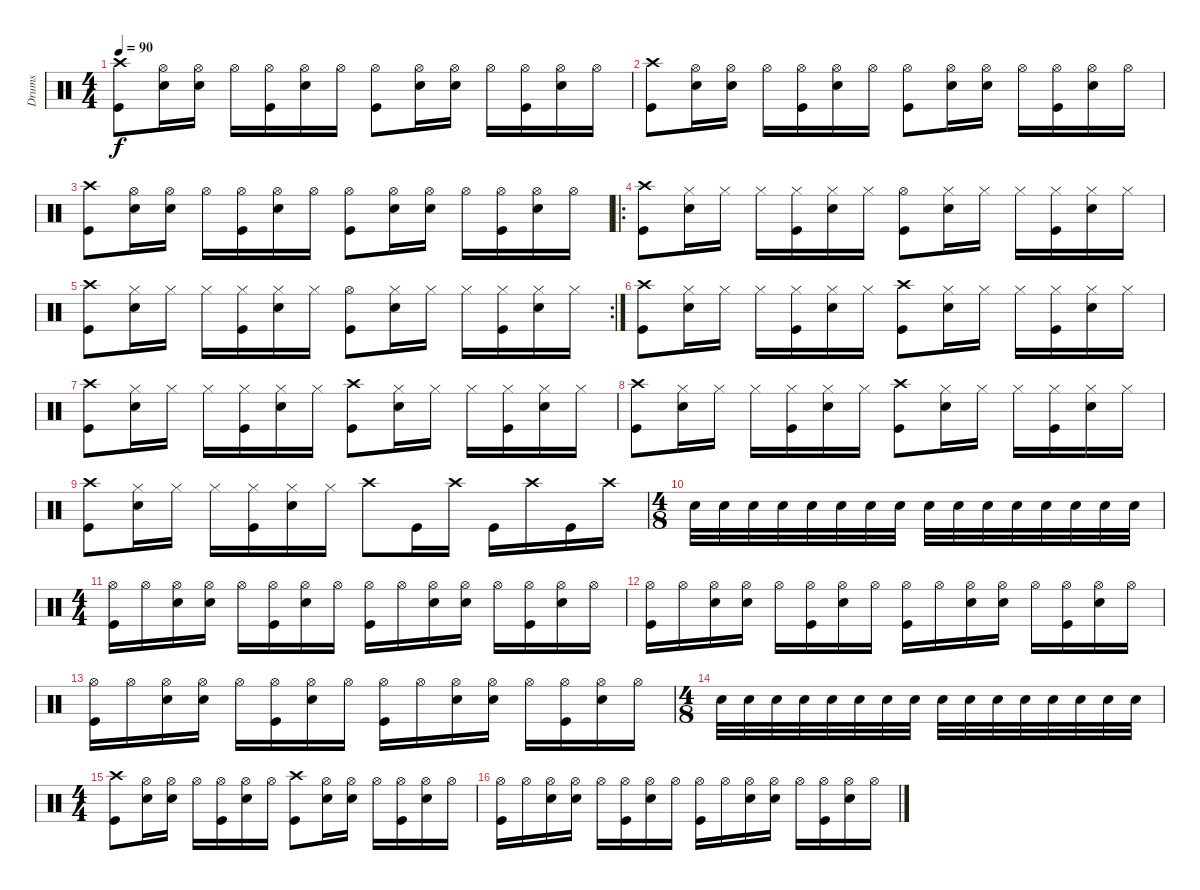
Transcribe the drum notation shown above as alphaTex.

\track ("Drums" "Drums") {instrument percussion}
\staff {score}
\articulation defaults
\ts (4 4)
\tempo 90
\clef neutral
\ks c
("Crash high (hit)" "Kick (hit)").8{dy f} ("Hi-Hat (open)" "Snare (hit) 2").16 ("Hi-Hat (open)" "Snare (hit) 2").16 "Hi-Hat (open)".16 ("Hi-Hat (open)" "Kick (hit)").16 ("Hi-Hat (open)" "Snare (hit) 2").16 "Hi-Hat (open)".16 ("Hi-Hat (open)" "Kick (hit)").8 ("Hi-Hat (open)" "Snare (hit) 2").16 ("Hi-Hat (open)" "Snare (hit) 2").16 "Hi-Hat (open)".16 ("Hi-Hat (open)" "Kick (hit)").16 ("Hi-Hat (open)" "Snare (hit) 2").16 "Hi-Hat (open)".16 |
("Crash high (hit)" "Kick (hit)").8 ("Hi-Hat (open)" "Snare (hit) 2").16 ("Hi-Hat (open)" "Snare (hit) 2").16 "Hi-Hat (open)".16 ("Hi-Hat (open)" "Kick (hit)").16 ("Hi-Hat (open)" "Snare (hit) 2").16 "Hi-Hat (open)".16 ("Hi-Hat (open)" "Kick (hit)").8 ("Hi-Hat (open)" "Snare (hit) 2").16 ("Hi-Hat (open)" "Snare (hit) 2").16 "Hi-Hat (open)".16 ("Hi-Hat (open)" "Kick (hit)").16 ("Hi-Hat (open)" "Snare (hit) 2").16 "Hi-Hat (open)".16 |
("Crash high (hit)" "Kick (hit)").8 ("Hi-Hat (open)" "Snare (hit) 2").16 ("Hi-Hat (open)" "Snare (hit) 2").16 "Hi-Hat (open)".16 ("Hi-Hat (open)" "Kick (hit)").16 ("Hi-Hat (open)" "Snare (hit) 2").16 "Hi-Hat (open)".16 ("Hi-Hat (open)" "Kick (hit)").8 ("Hi-Hat (open)" "Snare (hit) 2").16 ("Hi-Hat (open)" "Snare (hit) 2").16 "Hi-Hat (open)".16 ("Hi-Hat (open)" "Kick (hit)").16 ("Hi-Hat (open)" "Snare (hit) 2").16 "Hi-Hat (open)".16 |
\ro
("Crash high (hit)" "Kick (hit)").8 ("Hi-Hat (closed)" "Snare (hit) 2").16 "Hi-Hat (closed)".16 "Hi-Hat (closed)".16 ("Hi-Hat (closed)" "Kick (hit)").16 ("Hi-Hat (closed)" "Snare (hit) 2").16 "Hi-Hat (closed)".16 ("Hi-Hat (open)" "Kick (hit)").8 ("Hi-Hat (closed)" "Snare (hit) 2").16 "Hi-Hat (closed)".16 "Hi-Hat (closed)".16 ("Hi-Hat (closed)" "Kick (hit)").16 ("Hi-Hat (closed)" "Snare (hit) 2").16 "Hi-Hat (closed)".16 |
\rc 2
("Crash high (hit)" "Kick (hit)").8 ("Hi-Hat (closed)" "Snare (hit) 2").16 "Hi-Hat (closed)".16 "Hi-Hat (closed)".16 ("Hi-Hat (closed)" "Kick (hit)").16 ("Hi-Hat (closed)" "Snare (hit) 2").16 "Hi-Hat (closed)".16 ("Hi-Hat (open)" "Kick (hit)").8 ("Hi-Hat (closed)" "Snare (hit) 2").16 "Hi-Hat (closed)".16 "Hi-Hat (closed)".16 ("Hi-Hat (closed)" "Kick (hit)").16 ("Hi-Hat (closed)" "Snare (hit) 2").16 "Hi-Hat (closed)".16 |
("Crash high (hit)" "Kick (hit)").8 ("Hi-Hat (closed)" "Snare (hit) 2").16 "Hi-Hat (closed)".16 "Hi-Hat (closed)".16 ("Hi-Hat (closed)" "Kick (hit)").16 ("Hi-Hat (closed)" "Snare (hit) 2").16 "Hi-Hat (closed)".16 ("Crash high (hit)" "Kick (hit)").8 ("Hi-Hat (closed)" "Snare (hit) 2").16 "Hi-Hat (closed)".16 "Hi-Hat (closed)".16 ("Hi-Hat (closed)" "Kick (hit)").16 ("Hi-Hat (closed)" "Snare (hit) 2").16 "Hi-Hat (closed)".16 |
("Crash high (hit)" "Kick (hit)").8 ("Hi-Hat (closed)" "Snare (hit) 2").16 "Hi-Hat (closed)".16 "Hi-Hat (closed)".16 ("Hi-Hat (closed)" "Kick (hit)").16 ("Hi-Hat (closed)" "Snare (hit) 2").16 "Hi-Hat (closed)".16 ("Crash high (hit)" "Kick (hit)").8 ("Hi-Hat (closed)" "Snare (hit) 2").16 "Hi-Hat (closed)".16 "Hi-Hat (closed)".16 ("Hi-Hat (closed)" "Kick (hit)").16 ("Hi-Hat (closed)" "Snare (hit) 2").16 "Hi-Hat (closed)".16 |
("Crash high (hit)" "Kick (hit)").8 ("Hi-Hat (closed)" "Snare (hit) 2").16 "Hi-Hat (closed)".16 "Hi-Hat (closed)".16 ("Hi-Hat (closed)" "Kick (hit)").16 ("Hi-Hat (closed)" "Snare (hit) 2").16 "Hi-Hat (closed)".16 ("Crash high (hit)" "Kick (hit)").8 ("Hi-Hat (closed)" "Snare (hit) 2").16 "Hi-Hat (closed)".16 "Hi-Hat (closed)".16 ("Hi-Hat (closed)" "Kick (hit)").16 ("Hi-Hat (closed)" "Snare (hit) 2").16 "Hi-Hat (closed)".16 |
("Crash high (hit)" "Kick (hit)").8 ("Hi-Hat (closed)" "Snare (hit) 2").16 "Hi-Hat (closed)".16 "Hi-Hat (closed)".16 ("Hi-Hat (closed)" "Kick (hit)").16 ("Hi-Hat (closed)" "Snare (hit) 2").16 "Hi-Hat (closed)".16 "Crash high (hit)".8 "Kick (hit)".16 "Crash high (hit)".16 "Kick (hit)".16 "Crash high (hit)".16 "Kick (hit)".16 "Crash high (hit)".16 |
\ts (4 8)
"Snare (hit) 2".32 "Snare (hit) 2".32 "Snare (hit) 2".32 "Snare (hit) 2".32 "Snare (hit) 2".32 "Snare (hit) 2".32 "Snare (hit) 2".32 "Snare (hit) 2".32 "Snare (hit) 2".32 "Snare (hit) 2".32 "Snare (hit) 2".32 "Snare (hit) 2".32 "Snare (hit) 2".32 "Snare (hit) 2".32 "Snare (hit) 2".32 "Snare (hit) 2".32 |
\ts (4 4)
("Hi-Hat (open)" "Kick (hit)").16 "Hi-Hat (open)".16 ("Hi-Hat (open)" "Snare (hit) 2").16 ("Hi-Hat (open)" "Snare (hit) 2").16 "Hi-Hat (open)".16 ("Hi-Hat (open)" "Kick (hit)").16 ("Hi-Hat (open)" "Snare (hit) 2").16 "Hi-Hat (open)".16 ("Hi-Hat (open)" "Kick (hit)").16 "Hi-Hat (open)".16 ("Hi-Hat (open)" "Snare (hit) 2").16 ("Hi-Hat (open)" "Snare (hit) 2").16 "Hi-Hat (open)".16 ("Hi-Hat (open)" "Kick (hit)").16 ("Hi-Hat (open)" "Snare (hit) 2").16 "Hi-Hat (open)".16 |
("Hi-Hat (open)" "Kick (hit)").16 "Hi-Hat (open)".16 ("Hi-Hat (open)" "Snare (hit) 2").16 ("Hi-Hat (open)" "Snare (hit) 2").16 "Hi-Hat (open)".16 ("Hi-Hat (open)" "Kick (hit)").16 ("Hi-Hat (open)" "Snare (hit) 2").16 "Hi-Hat (open)".16 ("Hi-Hat (open)" "Kick (hit)").16 "Hi-Hat (open)".16 ("Hi-Hat (open)" "Snare (hit) 2").16 ("Hi-Hat (open)" "Snare (hit) 2").16 "Hi-Hat (open)".16 ("Hi-Hat (open)" "Kick (hit)").16 ("Hi-Hat (open)" "Snare (hit) 2").16 "Hi-Hat (open)".16 |
("Hi-Hat (open)" "Kick (hit)").16 "Hi-Hat (open)".16 ("Hi-Hat (open)" "Snare (hit) 2").16 ("Hi-Hat (open)" "Snare (hit) 2").16 "Hi-Hat (open)".16 ("Hi-Hat (open)" "Kick (hit)").16 ("Hi-Hat (open)" "Snare (hit) 2").16 "Hi-Hat (open)".16 ("Hi-Hat (open)" "Kick (hit)").16 "Hi-Hat (open)".16 ("Hi-Hat (open)" "Snare (hit) 2").16 ("Hi-Hat (open)" "Snare (hit) 2").16 "Hi-Hat (open)".16 ("Hi-Hat (open)" "Kick (hit)").16 ("Hi-Hat (open)" "Snare (hit) 2").16 "Hi-Hat (open)".16 |
\ts (4 8)
"Snare (hit) 2".32 "Snare (hit) 2".32 "Snare (hit) 2".32 "Snare (hit) 2".32 "Snare (hit) 2".32 "Snare (hit) 2".32 "Snare (hit) 2".32 "Snare (hit) 2".32 "Snare (hit) 2".32 "Snare (hit) 2".32 "Snare (hit) 2".32 "Snare (hit) 2".32 "Snare (hit) 2".32 "Snare (hit) 2".32 "Snare (hit) 2".32 "Snare (hit) 2".32 |
\ts (4 4)
("Crash high (hit)" "Kick (hit)").8 ("Hi-Hat (open)" "Snare (hit) 2").16 ("Hi-Hat (open)" "Snare (hit) 2").16 "Hi-Hat (open)".16 ("Hi-Hat (open)" "Kick (hit)").16 ("Hi-Hat (open)" "Snare (hit) 2").16 "Hi-Hat (open)".16 ("Crash high (hit)" "Kick (hit)").8 ("Hi-Hat (open)" "Snare (hit) 2").16 ("Hi-Hat (open)" "Snare (hit) 2").16 "Hi-Hat (open)".16 ("Hi-Hat (open)" "Kick (hit)").16 ("Hi-Hat (open)" "Snare (hit) 2").16 "Hi-Hat (open)".16 |
("Hi-Hat (open)" "Kick (hit)").16 "Hi-Hat (open)".16 ("Hi-Hat (open)" "Snare (hit) 2").16 ("Hi-Hat (open)" "Snare (hit) 2").16 "Hi-Hat (open)".16 ("Hi-Hat (open)" "Kick (hit)").16 ("Hi-Hat (open)" "Snare (hit) 2").16 "Hi-Hat (open)".16 ("Hi-Hat (open)" "Kick (hit)").16 "Hi-Hat (open)".16 ("Hi-Hat (open)" "Snare (hit) 2").16 ("Hi-Hat (open)" "Snare (hit) 2").16 "Hi-Hat (open)".16 ("Hi-Hat (open)" "Kick (hit)").16 ("Hi-Hat (open)" "Snare (hit) 2").16 "Hi-Hat (open)".16
